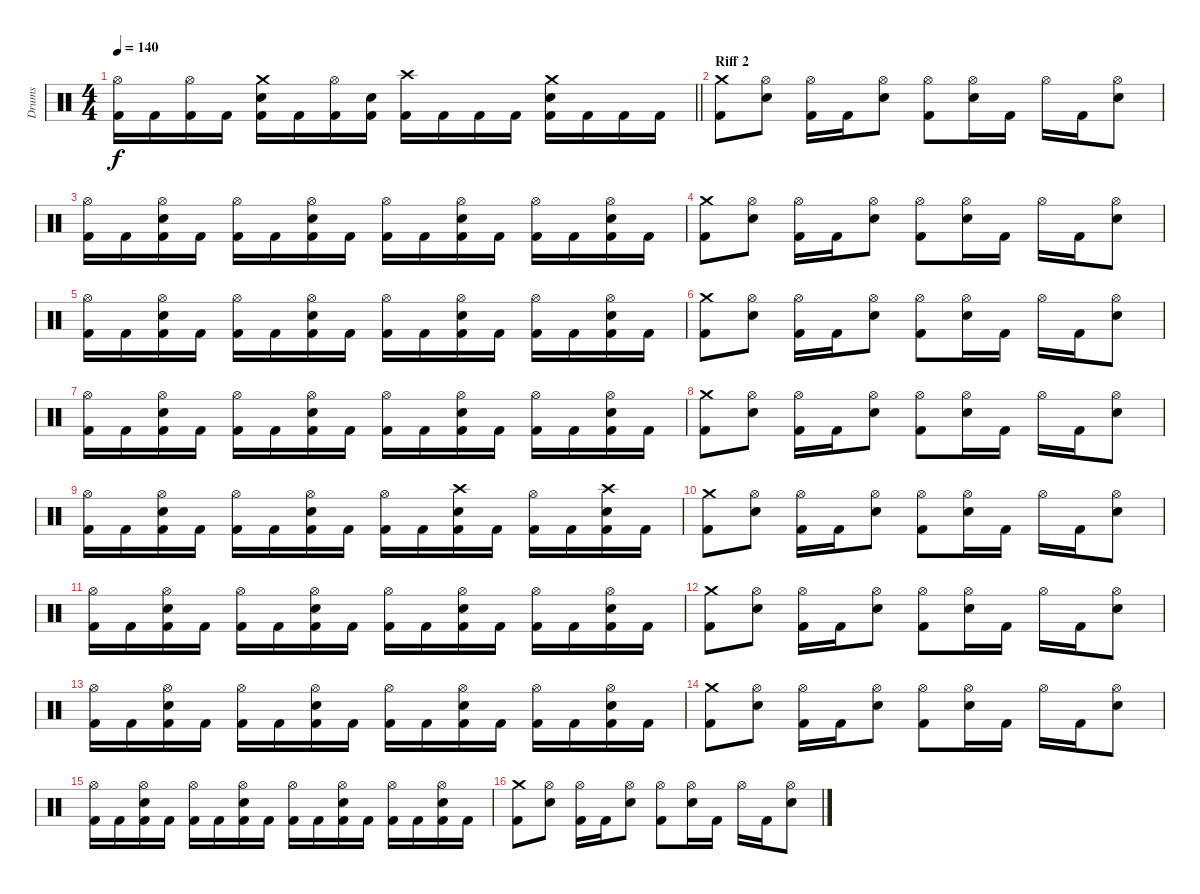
\track ("Drums" "Drums") {instrument percussion}
\staff {score}
\articulation defaults
\ts (4 4)
\tempo 140
\clef neutral
\barLineRight lightlight
\ks c
("Hi-Hat (open)" "Kick (hit) 2").16{dy f} "Kick (hit) 2".16 ("Hi-Hat (open)" "Kick (hit) 2").16 "Kick (hit) 2".16 ("Electric Snare (hit)" "Crash medium (hit)" "Kick (hit) 2").16 "Kick (hit) 2".16 ("Hi-Hat (open)" "Kick (hit) 2").16 ("Electric Snare (hit)" "Kick (hit) 2").16 ("Crash high (hit)" "Kick (hit) 2").16 "Kick (hit) 2".16 "Kick (hit) 2".16 "Kick (hit) 2".16 ("Electric Snare (hit)" "Crash medium (hit)" "Kick (hit) 2").16 "Kick (hit) 2".16 "Kick (hit) 2".16 "Kick (hit) 2".16 |
\section ("" "Riff 2")
("Crash medium (hit)" "Kick (hit) 2").8 ("Hi-Hat (open)" "Electric Snare (hit)").8 ("Kick (hit) 2" "Hi-Hat (open)").16 "Kick (hit) 2".16 ("Hi-Hat (open)" "Electric Snare (hit)").8 ("Kick (hit) 2" "Hi-Hat (open)").8 ("Electric Snare (hit)" "Hi-Hat (open)").16 "Kick (hit) 2".16 "Hi-Hat (open)".16 "Kick (hit) 2".16 ("Electric Snare (hit)" "Hi-Hat (open)").8 |
("Hi-Hat (open)" "Kick (hit) 2").16 "Kick (hit) 2".16 ("Hi-Hat (open)" "Electric Snare (hit)" "Kick (hit) 2").16 "Kick (hit) 2".16 ("Hi-Hat (open)" "Kick (hit) 2").16 "Kick (hit) 2".16 ("Hi-Hat (open)" "Electric Snare (hit)" "Kick (hit) 2").16 "Kick (hit) 2".16 ("Hi-Hat (open)" "Kick (hit) 2").16 "Kick (hit) 2".16 ("Hi-Hat (open)" "Electric Snare (hit)" "Kick (hit) 2").16 "Kick (hit) 2".16 ("Hi-Hat (open)" "Kick (hit) 2").16 "Kick (hit) 2".16 ("Hi-Hat (open)" "Electric Snare (hit)" "Kick (hit) 2").16 "Kick (hit) 2".16 |
("Crash medium (hit)" "Kick (hit) 2").8 ("Hi-Hat (open)" "Electric Snare (hit)").8 ("Kick (hit) 2" "Hi-Hat (open)").16 "Kick (hit) 2".16 ("Hi-Hat (open)" "Electric Snare (hit)").8 ("Kick (hit) 2" "Hi-Hat (open)").8 ("Electric Snare (hit)" "Hi-Hat (open)").16 "Kick (hit) 2".16 "Hi-Hat (open)".16 "Kick (hit) 2".16 ("Electric Snare (hit)" "Hi-Hat (open)").8 |
("Hi-Hat (open)" "Kick (hit) 2").16 "Kick (hit) 2".16 ("Hi-Hat (open)" "Electric Snare (hit)" "Kick (hit) 2").16 "Kick (hit) 2".16 ("Hi-Hat (open)" "Kick (hit) 2").16 "Kick (hit) 2".16 ("Hi-Hat (open)" "Electric Snare (hit)" "Kick (hit) 2").16 "Kick (hit) 2".16 ("Hi-Hat (open)" "Kick (hit) 2").16 "Kick (hit) 2".16 ("Hi-Hat (open)" "Electric Snare (hit)" "Kick (hit) 2").16 "Kick (hit) 2".16 ("Hi-Hat (open)" "Kick (hit) 2").16 "Kick (hit) 2".16 ("Hi-Hat (open)" "Electric Snare (hit)" "Kick (hit) 2").16 "Kick (hit) 2".16 |
("Crash medium (hit)" "Kick (hit) 2").8 ("Hi-Hat (open)" "Electric Snare (hit)").8 ("Kick (hit) 2" "Hi-Hat (open)").16 "Kick (hit) 2".16 ("Hi-Hat (open)" "Electric Snare (hit)").8 ("Kick (hit) 2" "Hi-Hat (open)").8 ("Electric Snare (hit)" "Hi-Hat (open)").16 "Kick (hit) 2".16 "Hi-Hat (open)".16 "Kick (hit) 2".16 ("Electric Snare (hit)" "Hi-Hat (open)").8 |
("Hi-Hat (open)" "Kick (hit) 2").16 "Kick (hit) 2".16 ("Hi-Hat (open)" "Electric Snare (hit)" "Kick (hit) 2").16 "Kick (hit) 2".16 ("Hi-Hat (open)" "Kick (hit) 2").16 "Kick (hit) 2".16 ("Hi-Hat (open)" "Electric Snare (hit)" "Kick (hit) 2").16 "Kick (hit) 2".16 ("Hi-Hat (open)" "Kick (hit) 2").16 "Kick (hit) 2".16 ("Hi-Hat (open)" "Electric Snare (hit)" "Kick (hit) 2").16 "Kick (hit) 2".16 ("Hi-Hat (open)" "Kick (hit) 2").16 "Kick (hit) 2".16 ("Hi-Hat (open)" "Electric Snare (hit)" "Kick (hit) 2").16 "Kick (hit) 2".16 |
("Crash medium (hit)" "Kick (hit) 2").8 ("Hi-Hat (open)" "Electric Snare (hit)").8 ("Kick (hit) 2" "Hi-Hat (open)").16 "Kick (hit) 2".16 ("Hi-Hat (open)" "Electric Snare (hit)").8 ("Kick (hit) 2" "Hi-Hat (open)").8 ("Electric Snare (hit)" "Hi-Hat (open)").16 "Kick (hit) 2".16 "Hi-Hat (open)".16 "Kick (hit) 2".16 ("Electric Snare (hit)" "Hi-Hat (open)").8 |
("Hi-Hat (open)" "Kick (hit) 2").16 "Kick (hit) 2".16 ("Hi-Hat (open)" "Electric Snare (hit)" "Kick (hit) 2").16 "Kick (hit) 2".16 ("Hi-Hat (open)" "Kick (hit) 2").16 "Kick (hit) 2".16 ("Hi-Hat (open)" "Electric Snare (hit)" "Kick (hit) 2").16 "Kick (hit) 2".16 ("Hi-Hat (open)" "Kick (hit) 2").16 "Kick (hit) 2".16 ("Crash high (hit)" "Electric Snare (hit)" "Kick (hit) 2").16 "Kick (hit) 2".16 ("Hi-Hat (open)" "Kick (hit) 2").16 "Kick (hit) 2".16 ("Crash high (hit)" "Electric Snare (hit)" "Kick (hit) 2").16 "Kick (hit) 2".16 |
("Crash medium (hit)" "Kick (hit) 2").8 ("Hi-Hat (open)" "Electric Snare (hit)").8 ("Kick (hit) 2" "Hi-Hat (open)").16 "Kick (hit) 2".16 ("Hi-Hat (open)" "Electric Snare (hit)").8 ("Kick (hit) 2" "Hi-Hat (open)").8 ("Electric Snare (hit)" "Hi-Hat (open)").16 "Kick (hit) 2".16 "Hi-Hat (open)".16 "Kick (hit) 2".16 ("Electric Snare (hit)" "Hi-Hat (open)").8 |
("Hi-Hat (open)" "Kick (hit) 2").16 "Kick (hit) 2".16 ("Hi-Hat (open)" "Electric Snare (hit)" "Kick (hit) 2").16 "Kick (hit) 2".16 ("Hi-Hat (open)" "Kick (hit) 2").16 "Kick (hit) 2".16 ("Hi-Hat (open)" "Electric Snare (hit)" "Kick (hit) 2").16 "Kick (hit) 2".16 ("Hi-Hat (open)" "Kick (hit) 2").16 "Kick (hit) 2".16 ("Hi-Hat (open)" "Electric Snare (hit)" "Kick (hit) 2").16 "Kick (hit) 2".16 ("Hi-Hat (open)" "Kick (hit) 2").16 "Kick (hit) 2".16 ("Hi-Hat (open)" "Electric Snare (hit)" "Kick (hit) 2").16 "Kick (hit) 2".16 |
("Crash medium (hit)" "Kick (hit) 2").8 ("Hi-Hat (open)" "Electric Snare (hit)").8 ("Kick (hit) 2" "Hi-Hat (open)").16 "Kick (hit) 2".16 ("Hi-Hat (open)" "Electric Snare (hit)").8 ("Kick (hit) 2" "Hi-Hat (open)").8 ("Electric Snare (hit)" "Hi-Hat (open)").16 "Kick (hit) 2".16 "Hi-Hat (open)".16 "Kick (hit) 2".16 ("Electric Snare (hit)" "Hi-Hat (open)").8 |
("Hi-Hat (open)" "Kick (hit) 2").16 "Kick (hit) 2".16 ("Hi-Hat (open)" "Electric Snare (hit)" "Kick (hit) 2").16 "Kick (hit) 2".16 ("Hi-Hat (open)" "Kick (hit) 2").16 "Kick (hit) 2".16 ("Hi-Hat (open)" "Electric Snare (hit)" "Kick (hit) 2").16 "Kick (hit) 2".16 ("Hi-Hat (open)" "Kick (hit) 2").16 "Kick (hit) 2".16 ("Hi-Hat (open)" "Electric Snare (hit)" "Kick (hit) 2").16 "Kick (hit) 2".16 ("Hi-Hat (open)" "Kick (hit) 2").16 "Kick (hit) 2".16 ("Hi-Hat (open)" "Electric Snare (hit)" "Kick (hit) 2").16 "Kick (hit) 2".16 |
("Crash medium (hit)" "Kick (hit) 2").8 ("Hi-Hat (open)" "Electric Snare (hit)").8 ("Kick (hit) 2" "Hi-Hat (open)").16 "Kick (hit) 2".16 ("Hi-Hat (open)" "Electric Snare (hit)").8 ("Kick (hit) 2" "Hi-Hat (open)").8 ("Electric Snare (hit)" "Hi-Hat (open)").16 "Kick (hit) 2".16 "Hi-Hat (open)".16 "Kick (hit) 2".16 ("Electric Snare (hit)" "Hi-Hat (open)").8 |
("Hi-Hat (open)" "Kick (hit) 2").16 "Kick (hit) 2".16 ("Hi-Hat (open)" "Electric Snare (hit)" "Kick (hit) 2").16 "Kick (hit) 2".16 ("Hi-Hat (open)" "Kick (hit) 2").16 "Kick (hit) 2".16 ("Hi-Hat (open)" "Electric Snare (hit)" "Kick (hit) 2").16 "Kick (hit) 2".16 ("Hi-Hat (open)" "Kick (hit) 2").16 "Kick (hit) 2".16 ("Hi-Hat (open)" "Electric Snare (hit)" "Kick (hit) 2").16 "Kick (hit) 2".16 ("Hi-Hat (open)" "Kick (hit) 2").16 "Kick (hit) 2".16 ("Hi-Hat (open)" "Electric Snare (hit)" "Kick (hit) 2").16 "Kick (hit) 2".16 |
("Crash medium (hit)" "Kick (hit) 2").8 ("Hi-Hat (open)" "Electric Snare (hit)").8 ("Kick (hit) 2" "Hi-Hat (open)").16 "Kick (hit) 2".16 ("Hi-Hat (open)" "Electric Snare (hit)").8 ("Kick (hit) 2" "Hi-Hat (open)").8 ("Electric Snare (hit)" "Hi-Hat (open)").16 "Kick (hit) 2".16 "Hi-Hat (open)".16 "Kick (hit) 2".16 ("Electric Snare (hit)" "Hi-Hat (open)").8
